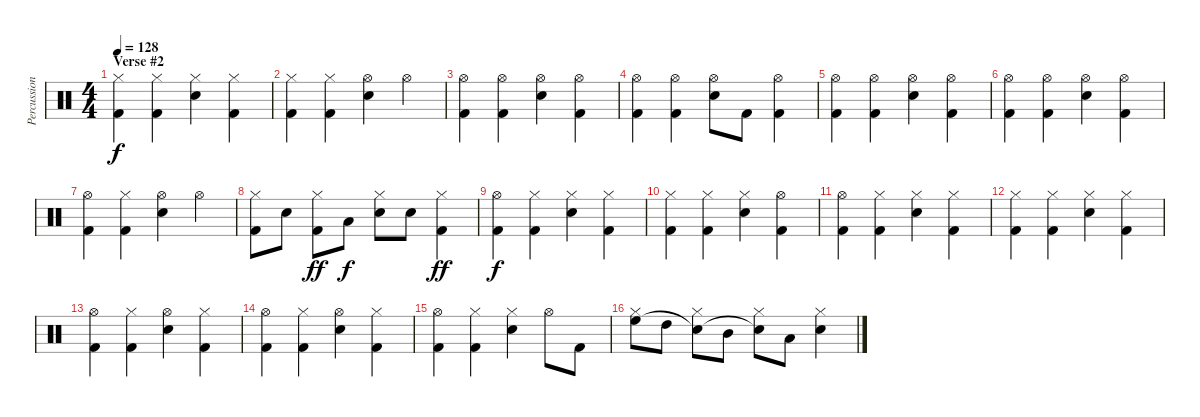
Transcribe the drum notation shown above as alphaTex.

\track ("Percussion" "Percussion") {instrument percussion}
\staff {score}
\articulation defaults
\ts (4 4)
\section ("" "Verse #2")
\tempo 128
\clef neutral
\ks c
("Hi-Hat (closed)" "Kick (hit) 2").4{dy f} ("Hi-Hat (closed)" "Kick (hit) 2").4 ("Hi-Hat (closed)" "Electric Snare (hit)").4 ("Hi-Hat (closed)" "Kick (hit) 2").4 |
("Hi-Hat (closed)" "Kick (hit) 2").4 ("Hi-Hat (closed)" "Kick (hit) 2").4 ("Hi-Hat (open)" "Electric Snare (hit)").4 "Hi-Hat (open)".4 |
("Hi-Hat (open)" "Kick (hit) 2").4 ("Hi-Hat (open)" "Kick (hit) 2").4 ("Hi-Hat (open)" "Electric Snare (hit)").4 ("Hi-Hat (open)" "Kick (hit) 2").4 |
("Hi-Hat (open)" "Kick (hit) 2").4 ("Hi-Hat (open)" "Kick (hit) 2").4 ("Hi-Hat (open)" "Electric Snare (hit)").8 "Kick (hit) 2".8 ("Hi-Hat (open)" "Kick (hit) 2").4 |
("Hi-Hat (open)" "Kick (hit) 2").4 ("Hi-Hat (open)" "Kick (hit) 2").4 ("Hi-Hat (open)" "Electric Snare (hit)").4 ("Hi-Hat (open)" "Kick (hit) 2").4 |
("Hi-Hat (open)" "Kick (hit) 2").4 ("Hi-Hat (open)" "Kick (hit) 2").4 ("Hi-Hat (open)" "Electric Snare (hit)").4 ("Hi-Hat (open)" "Kick (hit) 2").4 |
("Hi-Hat (open)" "Kick (hit) 2").4 ("Hi-Hat (closed)" "Kick (hit) 2").4 ("Hi-Hat (open)" "Electric Snare (hit)").4 "Hi-Hat (open)".4 |
("Hi-Hat (closed)" "Kick (hit) 2").8 "Electric Snare (hit)".8 ("Hi-Hat (closed)" "Kick (hit) 2").8{dy ff} "Low Tom (hit)".8{dy f} ("Hi-Hat (closed)" "Electric Snare (hit)").8 "Electric Snare (hit)".8 ("Hi-Hat (closed)" "Kick (hit) 2").4{dy ff} |
("Hi-Hat (open)" "Kick (hit) 2").4{dy f} ("Hi-Hat (closed)" "Kick (hit) 2").4 ("Hi-Hat (closed)" "Electric Snare (hit)").4 ("Hi-Hat (closed)" "Kick (hit) 2").4 |
("Hi-Hat (closed)" "Kick (hit) 2").4 ("Hi-Hat (closed)" "Kick (hit) 2").4 ("Hi-Hat (closed)" "Electric Snare (hit)").4 ("Hi-Hat (open)" "Kick (hit) 2").4 |
("Hi-Hat (open)" "Kick (hit) 2").4 ("Hi-Hat (closed)" "Kick (hit) 2").4 ("Hi-Hat (closed)" "Electric Snare (hit)").4 ("Hi-Hat (closed)" "Kick (hit) 2").4 |
("Hi-Hat (closed)" "Kick (hit) 2").4 ("Hi-Hat (closed)" "Kick (hit) 2").4 ("Hi-Hat (closed)" "Electric Snare (hit)").4 ("Hi-Hat (closed)" "Kick (hit) 2").4 |
("Hi-Hat (open)" "Kick (hit) 2").4 ("Hi-Hat (closed)" "Kick (hit) 2").4 ("Hi-Hat (open)" "Electric Snare (hit)").4 ("Hi-Hat (closed)" "Kick (hit) 2").4 |
("Hi-Hat (open)" "Kick (hit) 2").4 ("Hi-Hat (closed)" "Kick (hit) 2").4 ("Hi-Hat (open)" "Electric Snare (hit)").4 ("Hi-Hat (closed)" "Kick (hit) 2").4 |
("Hi-Hat (open)" "Kick (hit) 2").4 ("Hi-Hat (closed)" "Kick (hit) 2").4 ("Hi-Hat (closed)" "Electric Snare (hit)").4 "Hi-Hat (open)".8 "Kick (hit) 2".8 |
("Hi-Hat (closed)" "High Floor Tom (hit)").8 "High Tom (hit)".8 ("Hi-Hat (closed)" "Snare (hit)"{t}).8 "Mid Tom (hit)".8 ("Hi-Hat (closed)" "Snare (hit)"{t}).8 "Low Tom (hit)".8 ("Hi-Hat (closed)" "Electric Snare (hit)").4
